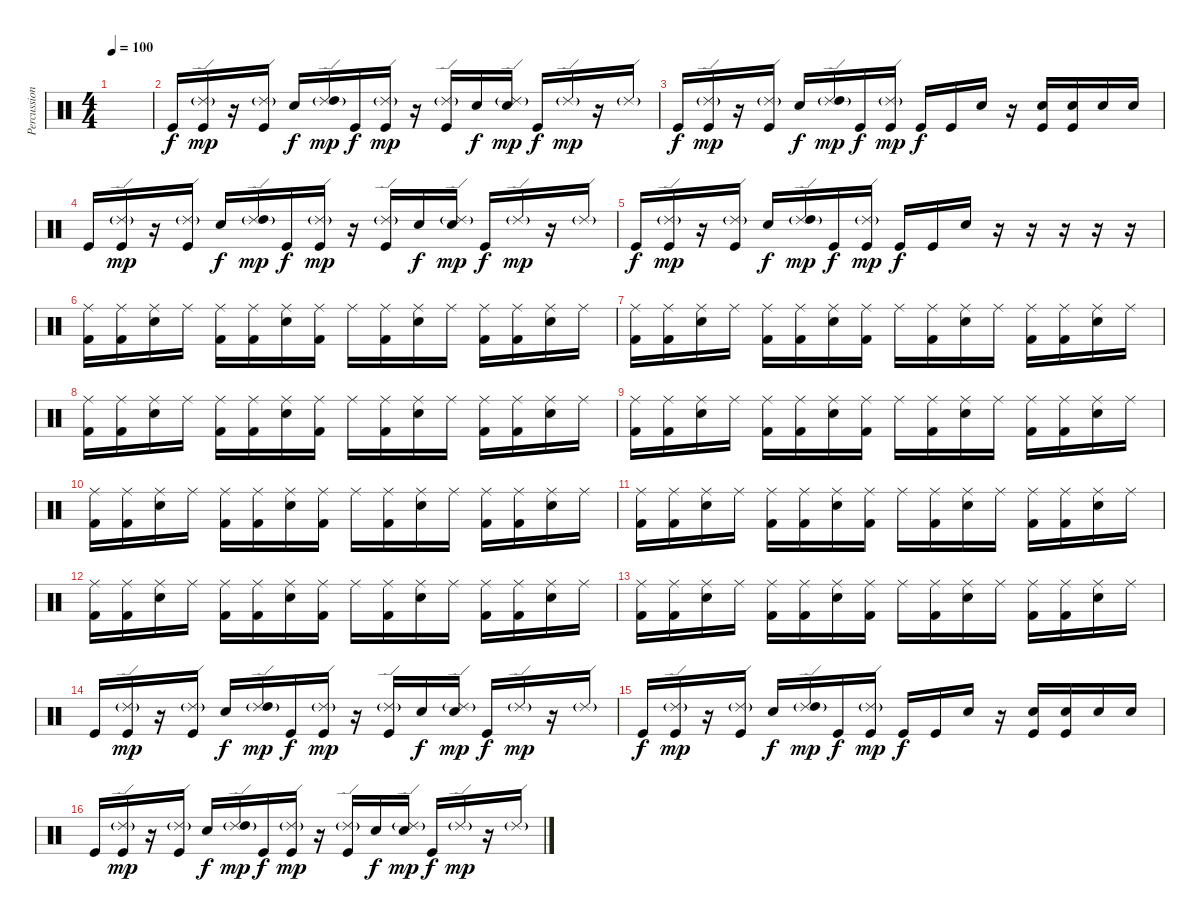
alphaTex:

\track ("Percussions" "Percussion") {instrument percussion}
\staff {score}
\articulation defaults
\ts (4 4)
\tempo 100
\clef neutral
\ks c
|
"Kick (hit)".16 ("Ride (edge) 2"{g} "Kick (hit)").16{dy mp} r.16 ("Ride (edge) 2"{g} "Kick (hit)").16 "Snare (hit) 2".16{dy f} ("Ride (edge) 2"{g} "High Tom (hit)").16{dy mp} "Kick (hit)".16{dy f} ("Ride (edge) 2"{g} "Kick (hit)").16{dy mp} r.16 ("Ride (edge) 2"{g} "Kick (hit)").16 "Snare (hit) 2".16{dy f} ("Ride (edge) 2"{g} "Snare (hit) 2").16{dy mp} "Kick (hit)".16{dy f} "Ride (edge) 2"{g}.16{dy mp} r.16 "Ride (edge) 2"{g}.16 |
"Kick (hit)".16{dy f} ("Ride (edge) 2"{g} "Kick (hit)").16{dy mp} r.16 ("Ride (edge) 2"{g} "Kick (hit)").16 "Snare (hit) 2".16{dy f} ("Ride (edge) 2"{g} "High Tom (hit)").16{dy mp} "Kick (hit)".16{dy f} ("Ride (edge) 2"{g} "Kick (hit)").16{dy mp} "Kick (hit)".16{dy f} "Kick (hit)".16 "Snare (hit) 2".16 r.16 ("Electric Snare (hit)" "Kick (hit)").16 ("Electric Snare (hit)" "Kick (hit)").16 "Electric Snare (hit)".16 "Electric Snare (hit)".16 |
"Kick (hit)".16{volume 16} ("Ride (edge) 2"{g} "Kick (hit)").16{dy mp} r.16 ("Ride (edge) 2"{g} "Kick (hit)").16 "Snare (hit) 2".16{dy f} ("Ride (edge) 2"{g} "High Tom (hit)").16{dy mp} "Kick (hit)".16{dy f} ("Ride (edge) 2"{g} "Kick (hit)").16{dy mp} r.16 ("Ride (edge) 2"{g} "Kick (hit)").16 "Snare (hit) 2".16{dy f} ("Ride (edge) 2"{g} "Snare (hit) 2").16{dy mp} "Kick (hit)".16{dy f} "Ride (edge) 2"{g}.16{dy mp} r.16 "Ride (edge) 2"{g}.16 |
"Kick (hit)".16{dy f} ("Ride (edge) 2"{g} "Kick (hit)").16{dy mp} r.16 ("Ride (edge) 2"{g} "Kick (hit)").16 "Snare (hit) 2".16{dy f} ("Ride (edge) 2"{g} "High Tom (hit)").16{dy mp} "Kick (hit)".16{dy f} ("Ride (edge) 2"{g} "Kick (hit)").16{dy mp} "Kick (hit)".16{dy f} "Kick (hit)".16 "Snare (hit) 2".16 r.16 r.16 r.16 r.16 r.16 |
("Ride (middle)" "Kick (hit) 2").16 ("Ride (middle)" "Kick (hit) 2").16 ("Ride (middle)" "Electric Snare (hit)").16 "Ride (middle)".16 ("Ride (middle)" "Kick (hit) 2").16 ("Ride (middle)" "Kick (hit) 2").16 ("Ride (middle)" "Electric Snare (hit)").16 ("Ride (middle)" "Kick (hit) 2").16 "Ride (middle)".16 ("Ride (middle)" "Kick (hit) 2").16 ("Ride (middle)" "Electric Snare (hit)").16 "Ride (middle)".16 ("Ride (middle)" "Kick (hit) 2").16 ("Ride (middle)" "Kick (hit) 2").16 ("Ride (middle)" "Electric Snare (hit)").16 "Ride (middle)".16 |
("Ride (middle)" "Kick (hit) 2").16 ("Ride (middle)" "Kick (hit) 2").16 ("Ride (middle)" "Electric Snare (hit)").16 "Ride (middle)".16 ("Ride (middle)" "Kick (hit) 2").16 ("Ride (middle)" "Kick (hit) 2").16 ("Ride (middle)" "Electric Snare (hit)").16 ("Ride (middle)" "Kick (hit) 2").16 "Ride (middle)".16 ("Ride (middle)" "Kick (hit) 2").16 ("Ride (middle)" "Electric Snare (hit)").16 "Ride (middle)".16 ("Ride (middle)" "Kick (hit) 2").16 ("Ride (middle)" "Kick (hit) 2").16 ("Ride (middle)" "Electric Snare (hit)").16 "Ride (middle)".16 |
("Ride (middle)" "Kick (hit) 2").16 ("Ride (middle)" "Kick (hit) 2").16 ("Ride (middle)" "Electric Snare (hit)").16 "Ride (middle)".16 ("Ride (middle)" "Kick (hit) 2").16 ("Ride (middle)" "Kick (hit) 2").16 ("Ride (middle)" "Electric Snare (hit)").16 ("Ride (middle)" "Kick (hit) 2").16 "Ride (middle)".16 ("Ride (middle)" "Kick (hit) 2").16 ("Ride (middle)" "Electric Snare (hit)").16 "Ride (middle)".16 ("Ride (middle)" "Kick (hit) 2").16 ("Ride (middle)" "Kick (hit) 2").16 ("Ride (middle)" "Electric Snare (hit)").16 "Ride (middle)".16 |
("Ride (middle)" "Kick (hit) 2").16 ("Ride (middle)" "Kick (hit) 2").16 ("Ride (middle)" "Electric Snare (hit)").16 "Ride (middle)".16 ("Ride (middle)" "Kick (hit) 2").16 ("Ride (middle)" "Kick (hit) 2").16 ("Ride (middle)" "Electric Snare (hit)").16 ("Ride (middle)" "Kick (hit) 2").16 "Ride (middle)".16 ("Ride (middle)" "Kick (hit) 2").16 ("Ride (middle)" "Electric Snare (hit)").16 "Ride (middle)".16 ("Ride (middle)" "Kick (hit) 2").16 ("Ride (middle)" "Kick (hit) 2").16 ("Ride (middle)" "Electric Snare (hit)").16 "Ride (middle)".16 |
("Ride (middle)" "Kick (hit) 2").16 ("Ride (middle)" "Kick (hit) 2").16 ("Ride (middle)" "Electric Snare (hit)").16 "Ride (middle)".16 ("Ride (middle)" "Kick (hit) 2").16 ("Ride (middle)" "Kick (hit) 2").16 ("Ride (middle)" "Electric Snare (hit)").16 ("Ride (middle)" "Kick (hit) 2").16 "Ride (middle)".16 ("Ride (middle)" "Kick (hit) 2").16 ("Ride (middle)" "Electric Snare (hit)").16 "Ride (middle)".16 ("Ride (middle)" "Kick (hit) 2").16 ("Ride (middle)" "Kick (hit) 2").16 ("Ride (middle)" "Electric Snare (hit)").16 "Ride (middle)".16 |
("Ride (middle)" "Kick (hit) 2").16 ("Ride (middle)" "Kick (hit) 2").16 ("Ride (middle)" "Electric Snare (hit)").16 "Ride (middle)".16 ("Ride (middle)" "Kick (hit) 2").16 ("Ride (middle)" "Kick (hit) 2").16 ("Ride (middle)" "Electric Snare (hit)").16 ("Ride (middle)" "Kick (hit) 2").16 "Ride (middle)".16 ("Ride (middle)" "Kick (hit) 2").16 ("Ride (middle)" "Electric Snare (hit)").16 "Ride (middle)".16 ("Ride (middle)" "Kick (hit) 2").16 ("Ride (middle)" "Kick (hit) 2").16 ("Ride (middle)" "Electric Snare (hit)").16 "Ride (middle)".16 |
("Ride (middle)" "Kick (hit) 2").16 ("Ride (middle)" "Kick (hit) 2").16 ("Ride (middle)" "Electric Snare (hit)").16 "Ride (middle)".16 ("Ride (middle)" "Kick (hit) 2").16 ("Ride (middle)" "Kick (hit) 2").16 ("Ride (middle)" "Electric Snare (hit)").16 ("Ride (middle)" "Kick (hit) 2").16 "Ride (middle)".16 ("Ride (middle)" "Kick (hit) 2").16 ("Ride (middle)" "Electric Snare (hit)").16 "Ride (middle)".16 ("Ride (middle)" "Kick (hit) 2").16 ("Ride (middle)" "Kick (hit) 2").16 ("Ride (middle)" "Electric Snare (hit)").16 "Ride (middle)".16 |
("Ride (middle)" "Kick (hit) 2").16 ("Ride (middle)" "Kick (hit) 2").16 ("Ride (middle)" "Electric Snare (hit)").16 "Ride (middle)".16 ("Ride (middle)" "Kick (hit) 2").16 ("Ride (middle)" "Kick (hit) 2").16 ("Ride (middle)" "Electric Snare (hit)").16 ("Ride (middle)" "Kick (hit) 2").16 "Ride (middle)".16 ("Ride (middle)" "Kick (hit) 2").16 ("Ride (middle)" "Electric Snare (hit)").16 "Ride (middle)".16 ("Ride (middle)" "Kick (hit) 2").16 ("Ride (middle)" "Kick (hit) 2").16 ("Ride (middle)" "Electric Snare (hit)").16 "Ride (middle)".16 |
"Kick (hit)".16 ("Ride (edge) 2"{g} "Kick (hit)").16{dy mp} r.16 ("Ride (edge) 2"{g} "Kick (hit)").16 "Snare (hit) 2".16{dy f} ("Ride (edge) 2"{g} "High Tom (hit)").16{dy mp} "Kick (hit)".16{dy f} ("Ride (edge) 2"{g} "Kick (hit)").16{dy mp} r.16 ("Ride (edge) 2"{g} "Kick (hit)").16 "Snare (hit) 2".16{dy f} ("Ride (edge) 2"{g} "Snare (hit) 2").16{dy mp} "Kick (hit)".16{dy f} "Ride (edge) 2"{g}.16{dy mp} r.16 "Ride (edge) 2"{g}.16 |
"Kick (hit)".16{dy f} ("Ride (edge) 2"{g} "Kick (hit)").16{dy mp} r.16 ("Ride (edge) 2"{g} "Kick (hit)").16 "Snare (hit) 2".16{dy f} ("Ride (edge) 2"{g} "High Tom (hit)").16{dy mp} "Kick (hit)".16{dy f} ("Ride (edge) 2"{g} "Kick (hit)").16{dy mp} "Kick (hit)".16{dy f} "Kick (hit)".16 "Snare (hit) 2".16 r.16 ("Electric Snare (hit)" "Kick (hit)").16 ("Electric Snare (hit)" "Kick (hit)").16 "Electric Snare (hit)".16 "Electric Snare (hit)".16 |
"Kick (hit)".16 ("Ride (edge) 2"{g} "Kick (hit)").16{dy mp} r.16 ("Ride (edge) 2"{g} "Kick (hit)").16 "Snare (hit) 2".16{dy f} ("Ride (edge) 2"{g} "High Tom (hit)").16{dy mp} "Kick (hit)".16{dy f} ("Ride (edge) 2"{g} "Kick (hit)").16{dy mp} r.16 ("Ride (edge) 2"{g} "Kick (hit)").16 "Snare (hit) 2".16{dy f} ("Ride (edge) 2"{g} "Snare (hit) 2").16{dy mp} "Kick (hit)".16{dy f} "Ride (edge) 2"{g}.16{dy mp} r.16 "Ride (edge) 2"{g}.16
